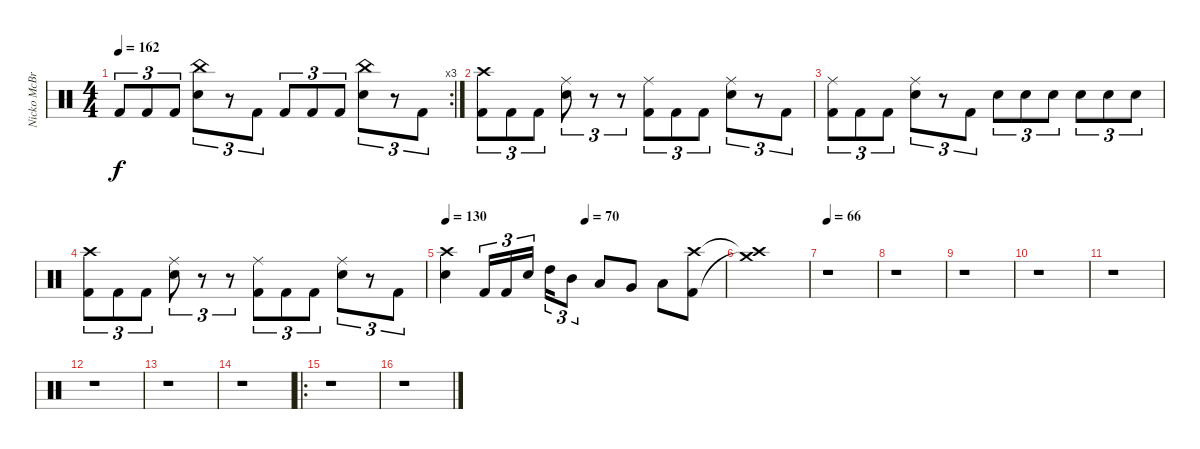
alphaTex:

\track ("Nicko McBrain" "Nicko McBr") {instrument percussion}
\staff {score}
\articulation defaults
\rc 3
\ts (4 4)
\tempo 162
\clef neutral
\ks c "Kick (hit) 2".8{tu (3 2) dy f} "Kick (hit) 2".8{tu (3 2)} "Kick (hit) 2".8{tu (3 2)}
("China (hit)" "Electric Snare (hit)").8{tu (3 2)} r.8{tu (3 2)} "Kick (hit) 2".8{tu (3 2)} "Kick (hit) 2".8{tu (3 2)} "Kick (hit) 2".8{tu (3 2)} "Kick (hit) 2".8{tu (3 2)} ("China (hit)" "Electric Snare (hit)").8{tu (3 2)} r.8{tu (3 2)} "Kick (hit) 2".8{tu (3 2)} |
("Crash high (hit)" "Kick (hit) 2").8{tu (3 2)} "Kick (hit) 2".8{tu (3 2)} "Kick (hit) 2".8{tu (3 2)} ("Ride (middle)" "Electric Snare (hit)").8{tu (3 2)} r.8{tu (3 2)} r.8{tu (3 2)} ("Ride (middle)" "Kick (hit) 2").8{tu (3 2)} "Kick (hit) 2".8{tu (3 2)} "Kick (hit) 2".8{tu (3 2)} ("Ride (middle)" "Electric Snare (hit)").8{tu (3 2)} r.8{tu (3 2)} "Kick (hit) 2".8{tu (3 2)} |
("Ride (middle)" "Kick (hit) 2").8{tu (3 2)} "Kick (hit) 2".8{tu (3 2)} "Kick (hit) 2".8{tu (3 2)} ("Ride (middle)" "Electric Snare (hit)").8{tu (3 2)} r.8{tu (3 2)} "Kick (hit) 2".8{tu (3 2)} "Electric Snare (hit)".8{tu (3 2)} "Electric Snare (hit)".8{tu (3 2)} "Electric Snare (hit)".8{tu (3 2)} "Electric Snare (hit)".8{tu (3 2)} "Electric Snare (hit)".8{tu (3 2)} "Electric Snare (hit)".8{tu (3 2)} |
("Crash high (hit)" "Kick (hit) 2").8{tu (3 2)} "Kick (hit) 2".8{tu (3 2)} "Kick (hit) 2".8{tu (3 2)} ("Ride (middle)" "Electric Snare (hit)").8{tu (3 2)} r.8{tu (3 2)} r.8{tu (3 2)} ("Ride (middle)" "Kick (hit) 2").8{tu (3 2)} "Kick (hit) 2".8{tu (3 2)} "Kick (hit) 2".8{tu (3 2)} ("Ride (middle)" "Electric Snare (hit)").8{tu (3 2)} r.8{tu (3 2)} "Kick (hit) 2".8{tu (3 2)} |
\tempo 130
\tempo (70 0.5)
("Crash high (hit)" "Electric Snare (hit)").4 "Kick (hit) 2".16{tu (3 2)} "Kick (hit) 2".16{tu (3 2)} "Electric Snare (hit)".16{tu (3 2) beam splitsecondary} "High Tom (hit)".16{tu (3 2)} "Mid Tom (hit)".8{tu (3 2)} "Low Tom (hit)".8 "Very Low Tom (hit)".8 "Low Floor Tom (hit)".8 ("Crash high (hit)" "Kick (hit) 2").8 |
("Crash high (hit)"{t} "Crash medium (hit)"{t}).1 |
\tempo 66
r.1 |
r.1 |
r.1 |
r.1 |
r.1 |
r.1 |
r.1 |
r.1 |
\ro
r.1 |
r.1
